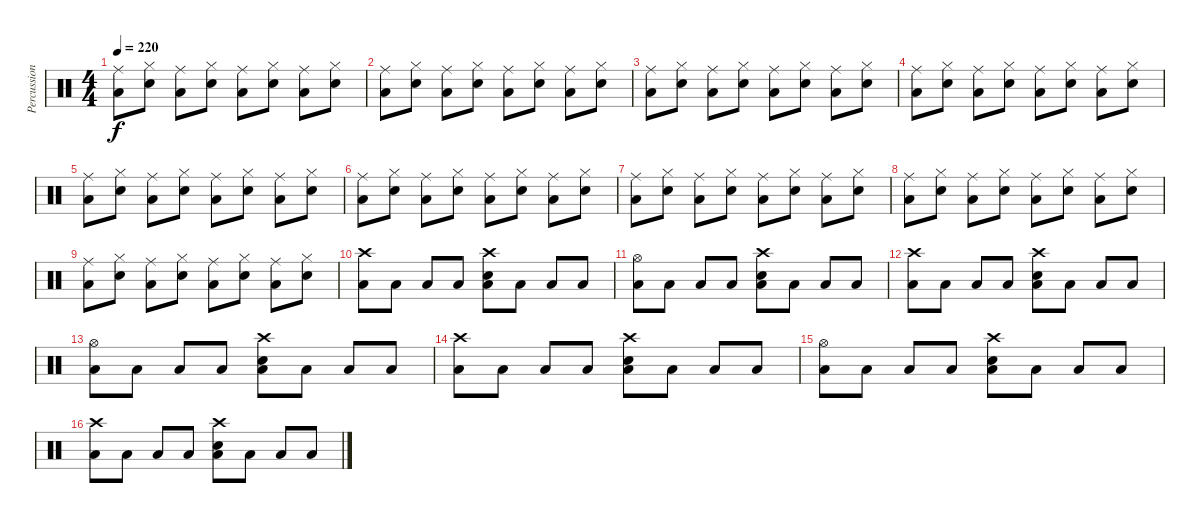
\track ("Percussion" "Percussion") {instrument percussion}
\staff {score}
\articulation defaults
\ts (4 4)
\tempo 220
\clef neutral
\ks c
("Low Floor Tom (hit)" "Ride (middle)").8{dy f} ("Electric Snare (hit)" "Hi-Hat (closed)").8 ("Low Floor Tom (hit)" "Ride (middle)").8 ("Electric Snare (hit)" "Hi-Hat (closed)").8 ("Low Floor Tom (hit)" "Ride (middle)").8 ("Electric Snare (hit)" "Hi-Hat (closed)").8 ("Low Floor Tom (hit)" "Ride (middle)").8 ("Electric Snare (hit)" "Hi-Hat (closed)").8 |
("Low Floor Tom (hit)" "Ride (middle)").8 ("Electric Snare (hit)" "Hi-Hat (closed)").8 ("Low Floor Tom (hit)" "Ride (middle)").8 ("Electric Snare (hit)" "Hi-Hat (closed)").8 ("Low Floor Tom (hit)" "Ride (middle)").8 ("Electric Snare (hit)" "Hi-Hat (closed)").8 ("Low Floor Tom (hit)" "Ride (middle)").8 ("Electric Snare (hit)" "Hi-Hat (closed)").8 |
("Low Floor Tom (hit)" "Ride (middle)").8 ("Electric Snare (hit)" "Hi-Hat (closed)").8 ("Low Floor Tom (hit)" "Ride (middle)").8 ("Electric Snare (hit)" "Hi-Hat (closed)").8 ("Low Floor Tom (hit)" "Ride (middle)").8 ("Electric Snare (hit)" "Hi-Hat (closed)").8 ("Low Floor Tom (hit)" "Ride (middle)").8 ("Electric Snare (hit)" "Hi-Hat (closed)").8 |
("Low Floor Tom (hit)" "Ride (middle)").8 ("Electric Snare (hit)" "Hi-Hat (closed)").8 ("Low Floor Tom (hit)" "Ride (middle)").8 ("Electric Snare (hit)" "Hi-Hat (closed)").8 ("Low Floor Tom (hit)" "Ride (middle)").8 ("Electric Snare (hit)" "Hi-Hat (closed)").8 ("Low Floor Tom (hit)" "Ride (middle)").8 ("Electric Snare (hit)" "Hi-Hat (closed)").8 |
("Low Floor Tom (hit)" "Ride (middle)").8 ("Electric Snare (hit)" "Hi-Hat (closed)").8 ("Low Floor Tom (hit)" "Ride (middle)").8 ("Electric Snare (hit)" "Hi-Hat (closed)").8 ("Low Floor Tom (hit)" "Ride (middle)").8 ("Electric Snare (hit)" "Hi-Hat (closed)").8 ("Low Floor Tom (hit)" "Ride (middle)").8 ("Electric Snare (hit)" "Hi-Hat (closed)").8 |
("Low Floor Tom (hit)" "Ride (middle)").8 ("Electric Snare (hit)" "Hi-Hat (closed)").8 ("Low Floor Tom (hit)" "Ride (middle)").8 ("Electric Snare (hit)" "Hi-Hat (closed)").8 ("Low Floor Tom (hit)" "Ride (middle)").8 ("Electric Snare (hit)" "Hi-Hat (closed)").8 ("Low Floor Tom (hit)" "Ride (middle)").8 ("Electric Snare (hit)" "Hi-Hat (closed)").8 |
("Low Floor Tom (hit)" "Ride (middle)").8 ("Electric Snare (hit)" "Hi-Hat (closed)").8 ("Low Floor Tom (hit)" "Ride (middle)").8 ("Electric Snare (hit)" "Hi-Hat (closed)").8 ("Low Floor Tom (hit)" "Ride (middle)").8 ("Electric Snare (hit)" "Hi-Hat (closed)").8 ("Low Floor Tom (hit)" "Ride (middle)").8 ("Electric Snare (hit)" "Hi-Hat (closed)").8 |
("Low Floor Tom (hit)" "Ride (middle)").8 ("Electric Snare (hit)" "Hi-Hat (closed)").8 ("Low Floor Tom (hit)" "Ride (middle)").8 ("Electric Snare (hit)" "Hi-Hat (closed)").8 ("Low Floor Tom (hit)" "Ride (middle)").8 ("Electric Snare (hit)" "Hi-Hat (closed)").8 ("Low Floor Tom (hit)" "Ride (middle)").8 ("Electric Snare (hit)" "Hi-Hat (closed)").8 |
("Low Floor Tom (hit)" "Ride (middle)").8 ("Electric Snare (hit)" "Hi-Hat (closed)").8 ("Low Floor Tom (hit)" "Ride (middle)").8 ("Electric Snare (hit)" "Hi-Hat (closed)").8 ("Low Floor Tom (hit)" "Ride (middle)").8 ("Electric Snare (hit)" "Hi-Hat (closed)").8 ("Low Floor Tom (hit)" "Ride (middle)").8 ("Electric Snare (hit)" "Hi-Hat (closed)").8 |
("Crash high (hit)" "Low Floor Tom (hit)").8 "Low Floor Tom (hit)".8 "Low Floor Tom (hit)".8 "Low Floor Tom (hit)".8 ("Crash high (hit)" "Snare (hit) 2" "Low Floor Tom (hit)").8 "Low Floor Tom (hit)".8 "Low Floor Tom (hit)".8 "Low Floor Tom (hit)".8 |
("Hi-Hat (open)" "Low Floor Tom (hit)").8 "Low Floor Tom (hit)".8 "Low Floor Tom (hit)".8 "Low Floor Tom (hit)".8 ("Crash high (hit)" "Snare (hit) 2" "Low Floor Tom (hit)").8 "Low Floor Tom (hit)".8 "Low Floor Tom (hit)".8 "Low Floor Tom (hit)".8 |
("Crash high (hit)" "Low Floor Tom (hit)").8 "Low Floor Tom (hit)".8 "Low Floor Tom (hit)".8 "Low Floor Tom (hit)".8 ("Crash high (hit)" "Snare (hit) 2" "Low Floor Tom (hit)").8 "Low Floor Tom (hit)".8 "Low Floor Tom (hit)".8 "Low Floor Tom (hit)".8 |
("Hi-Hat (open)" "Low Floor Tom (hit)").8 "Low Floor Tom (hit)".8 "Low Floor Tom (hit)".8 "Low Floor Tom (hit)".8 ("Crash high (hit)" "Snare (hit) 2" "Low Floor Tom (hit)").8 "Low Floor Tom (hit)".8 "Low Floor Tom (hit)".8 "Low Floor Tom (hit)".8 |
("Crash high (hit)" "Low Floor Tom (hit)").8 "Low Floor Tom (hit)".8 "Low Floor Tom (hit)".8 "Low Floor Tom (hit)".8 ("Crash high (hit)" "Snare (hit) 2" "Low Floor Tom (hit)").8 "Low Floor Tom (hit)".8 "Low Floor Tom (hit)".8 "Low Floor Tom (hit)".8 |
("Hi-Hat (open)" "Low Floor Tom (hit)").8 "Low Floor Tom (hit)".8 "Low Floor Tom (hit)".8 "Low Floor Tom (hit)".8 ("Crash high (hit)" "Snare (hit) 2" "Low Floor Tom (hit)").8 "Low Floor Tom (hit)".8 "Low Floor Tom (hit)".8 "Low Floor Tom (hit)".8 |
("Crash high (hit)" "Low Floor Tom (hit)").8 "Low Floor Tom (hit)".8 "Low Floor Tom (hit)".8 "Low Floor Tom (hit)".8 ("Crash high (hit)" "Snare (hit) 2" "Low Floor Tom (hit)").8 "Low Floor Tom (hit)".8 "Low Floor Tom (hit)".8 "Low Floor Tom (hit)".8
